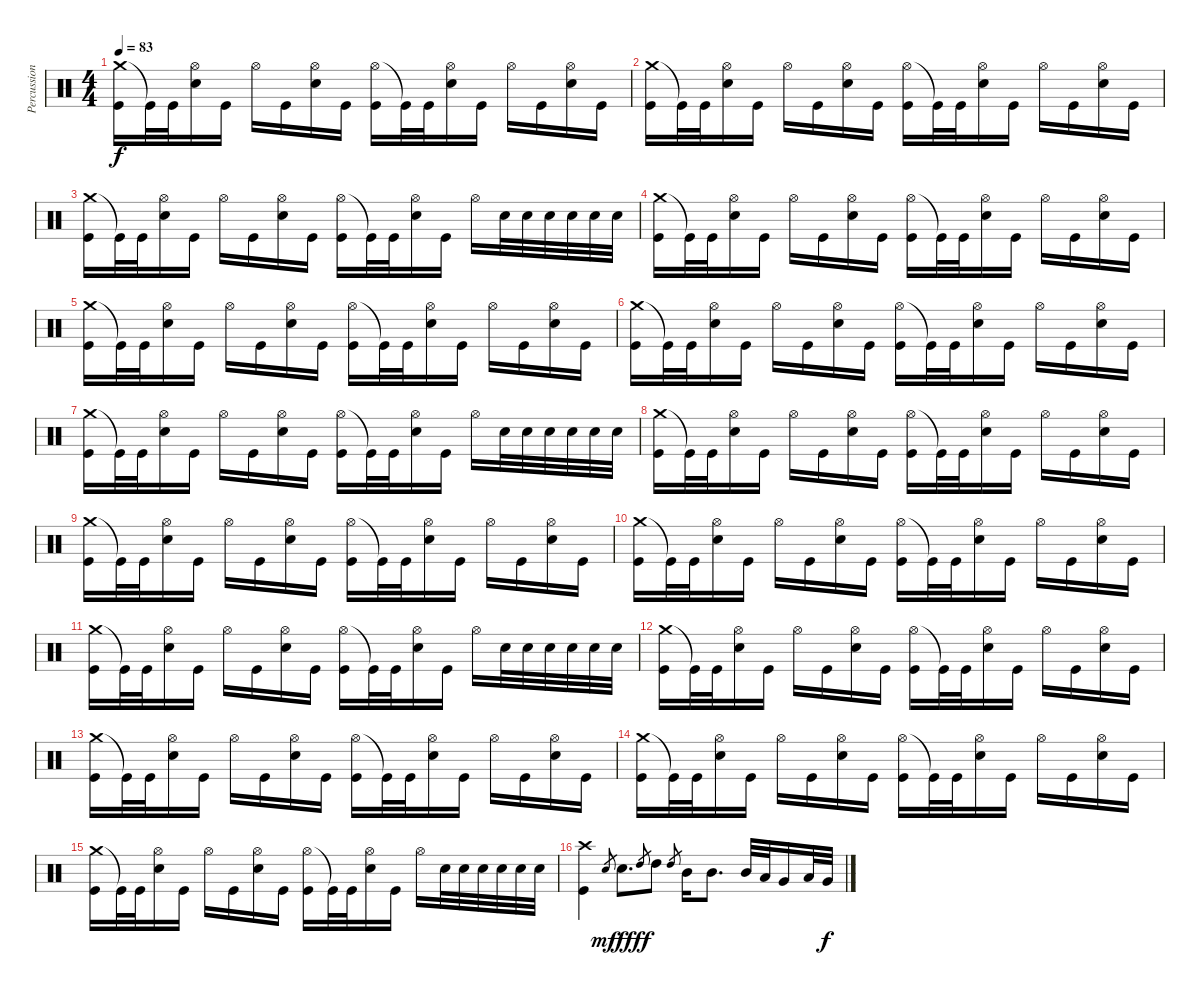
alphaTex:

\track ("Percussions" "Percussion") {instrument percussion}
\staff {score}
\articulation defaults
\ts (4 4)
\tempo 83
\clef neutral
\ks c
("Crash medium (hit)" "Kick (hit)").16{dy f} "Kick (hit)"{t}.32 "Kick (hit)".32 ("Hi-Hat (open)" "Electric Snare (hit)").16 "Kick (hit)".16 "Hi-Hat (open)".16 "Kick (hit)".16 ("Hi-Hat (open)" "Electric Snare (hit)").16 "Kick (hit)".16 ("Hi-Hat (open)" "Kick (hit)").16 "Kick (hit)"{t}.32 "Kick (hit)".32 ("Hi-Hat (open)" "Electric Snare (hit)").16 "Kick (hit)".16 "Hi-Hat (open)".16 "Kick (hit)".16 ("Hi-Hat (open)" "Electric Snare (hit)").16 "Kick (hit)".16 |
("Crash medium (hit)" "Kick (hit)").16 "Kick (hit)"{t}.32 "Kick (hit)".32 ("Hi-Hat (open)" "Electric Snare (hit)").16 "Kick (hit)".16 "Hi-Hat (open)".16 "Kick (hit)".16 ("Hi-Hat (open)" "Electric Snare (hit)").16 "Kick (hit)".16 ("Hi-Hat (open)" "Kick (hit)").16 "Kick (hit)"{t}.32 "Kick (hit)".32 ("Hi-Hat (open)" "Electric Snare (hit)").16 "Kick (hit)".16 "Hi-Hat (open)".16 "Kick (hit)".16 ("Hi-Hat (open)" "Electric Snare (hit)").16 "Kick (hit)".16 |
("Crash medium (hit)" "Kick (hit)").16 "Kick (hit)"{t}.32 "Kick (hit)".32 ("Hi-Hat (open)" "Electric Snare (hit)").16 "Kick (hit)".16 "Hi-Hat (open)".16 "Kick (hit)".16 ("Hi-Hat (open)" "Electric Snare (hit)").16 "Kick (hit)".16 ("Hi-Hat (open)" "Kick (hit)").16 "Kick (hit)"{t}.32 "Kick (hit)".32 ("Hi-Hat (open)" "Electric Snare (hit)").16 "Kick (hit)".16 "Hi-Hat (open)".16 "Electric Snare (hit)".32 "Electric Snare (hit)".32 "Electric Snare (hit)".32 "Electric Snare (hit)".32 "Electric Snare (hit)".32 "Electric Snare (hit)".32 |
("Crash medium (hit)" "Kick (hit)").16 "Kick (hit)"{t}.32 "Kick (hit)".32 ("Hi-Hat (open)" "Electric Snare (hit)").16 "Kick (hit)".16 "Hi-Hat (open)".16 "Kick (hit)".16 ("Hi-Hat (open)" "Electric Snare (hit)").16 "Kick (hit)".16 ("Hi-Hat (open)" "Kick (hit)").16 "Kick (hit)"{t}.32 "Kick (hit)".32 ("Hi-Hat (open)" "Electric Snare (hit)").16 "Kick (hit)".16 "Hi-Hat (open)".16 "Kick (hit)".16 ("Hi-Hat (open)" "Electric Snare (hit)").16 "Kick (hit)".16 |
("Crash medium (hit)" "Kick (hit)").16 "Kick (hit)"{t}.32 "Kick (hit)".32 ("Hi-Hat (open)" "Electric Snare (hit)").16 "Kick (hit)".16 "Hi-Hat (open)".16 "Kick (hit)".16 ("Hi-Hat (open)" "Electric Snare (hit)").16 "Kick (hit)".16 ("Hi-Hat (open)" "Kick (hit)").16 "Kick (hit)"{t}.32 "Kick (hit)".32 ("Hi-Hat (open)" "Electric Snare (hit)").16 "Kick (hit)".16 "Hi-Hat (open)".16 "Kick (hit)".16 ("Hi-Hat (open)" "Electric Snare (hit)").16 "Kick (hit)".16 |
("Crash medium (hit)" "Kick (hit)").16 "Kick (hit)"{t}.32 "Kick (hit)".32 ("Hi-Hat (open)" "Electric Snare (hit)").16 "Kick (hit)".16 "Hi-Hat (open)".16 "Kick (hit)".16 ("Hi-Hat (open)" "Electric Snare (hit)").16 "Kick (hit)".16 ("Hi-Hat (open)" "Kick (hit)").16 "Kick (hit)"{t}.32 "Kick (hit)".32 ("Hi-Hat (open)" "Electric Snare (hit)").16 "Kick (hit)".16 "Hi-Hat (open)".16 "Kick (hit)".16 ("Hi-Hat (open)" "Electric Snare (hit)").16 "Kick (hit)".16 |
("Crash medium (hit)" "Kick (hit)").16 "Kick (hit)"{t}.32 "Kick (hit)".32 ("Hi-Hat (open)" "Electric Snare (hit)").16 "Kick (hit)".16 "Hi-Hat (open)".16 "Kick (hit)".16 ("Hi-Hat (open)" "Electric Snare (hit)").16 "Kick (hit)".16 ("Hi-Hat (open)" "Kick (hit)").16 "Kick (hit)"{t}.32 "Kick (hit)".32 ("Hi-Hat (open)" "Electric Snare (hit)").16 "Kick (hit)".16 "Hi-Hat (open)".16 "Electric Snare (hit)".32 "Electric Snare (hit)".32 "Electric Snare (hit)".32 "Electric Snare (hit)".32 "Electric Snare (hit)".32 "Electric Snare (hit)".32 |
("Crash medium (hit)" "Kick (hit)").16 "Kick (hit)"{t}.32 "Kick (hit)".32 ("Hi-Hat (open)" "Electric Snare (hit)").16 "Kick (hit)".16 "Hi-Hat (open)".16 "Kick (hit)".16 ("Hi-Hat (open)" "Electric Snare (hit)").16 "Kick (hit)".16 ("Hi-Hat (open)" "Kick (hit)").16 "Kick (hit)"{t}.32 "Kick (hit)".32 ("Hi-Hat (open)" "Electric Snare (hit)").16 "Kick (hit)".16 "Hi-Hat (open)".16 "Kick (hit)".16 ("Hi-Hat (open)" "Electric Snare (hit)").16 "Kick (hit)".16 |
("Crash medium (hit)" "Kick (hit)").16 "Kick (hit)"{t}.32 "Kick (hit)".32 ("Hi-Hat (open)" "Electric Snare (hit)").16 "Kick (hit)".16 "Hi-Hat (open)".16 "Kick (hit)".16 ("Hi-Hat (open)" "Electric Snare (hit)").16 "Kick (hit)".16 ("Hi-Hat (open)" "Kick (hit)").16 "Kick (hit)"{t}.32 "Kick (hit)".32 ("Hi-Hat (open)" "Electric Snare (hit)").16 "Kick (hit)".16 "Hi-Hat (open)".16 "Kick (hit)".16 ("Hi-Hat (open)" "Electric Snare (hit)").16 "Kick (hit)".16 |
("Crash medium (hit)" "Kick (hit)").16 "Kick (hit)"{t}.32 "Kick (hit)".32 ("Hi-Hat (open)" "Electric Snare (hit)").16 "Kick (hit)".16 "Hi-Hat (open)".16 "Kick (hit)".16 ("Hi-Hat (open)" "Electric Snare (hit)").16 "Kick (hit)".16 ("Hi-Hat (open)" "Kick (hit)").16 "Kick (hit)"{t}.32 "Kick (hit)".32 ("Hi-Hat (open)" "Electric Snare (hit)").16 "Kick (hit)".16 "Hi-Hat (open)".16 "Kick (hit)".16 ("Hi-Hat (open)" "Electric Snare (hit)").16 "Kick (hit)".16 |
("Crash medium (hit)" "Kick (hit)").16 "Kick (hit)"{t}.32 "Kick (hit)".32 ("Hi-Hat (open)" "Electric Snare (hit)").16 "Kick (hit)".16 "Hi-Hat (open)".16 "Kick (hit)".16 ("Hi-Hat (open)" "Electric Snare (hit)").16 "Kick (hit)".16 ("Hi-Hat (open)" "Kick (hit)").16 "Kick (hit)"{t}.32 "Kick (hit)".32 ("Hi-Hat (open)" "Electric Snare (hit)").16 "Kick (hit)".16 "Hi-Hat (open)".16 "Electric Snare (hit)".32 "Electric Snare (hit)".32 "Electric Snare (hit)".32 "Electric Snare (hit)".32 "Electric Snare (hit)".32 "Electric Snare (hit)".32 |
("Crash medium (hit)" "Kick (hit)").16 "Kick (hit)"{t}.32 "Kick (hit)".32 ("Hi-Hat (open)" "Electric Snare (hit)").16 "Kick (hit)".16 "Hi-Hat (open)".16 "Kick (hit)".16 ("Hi-Hat (open)" "Electric Snare (hit)").16 "Kick (hit)".16 ("Hi-Hat (open)" "Kick (hit)").16 "Kick (hit)"{t}.32 "Kick (hit)".32 ("Hi-Hat (open)" "Electric Snare (hit)").16 "Kick (hit)".16 "Hi-Hat (open)".16 "Kick (hit)".16 ("Hi-Hat (open)" "Electric Snare (hit)").16 "Kick (hit)".16 |
("Crash medium (hit)" "Kick (hit)").16 "Kick (hit)"{t}.32 "Kick (hit)".32 ("Hi-Hat (open)" "Electric Snare (hit)").16 "Kick (hit)".16 "Hi-Hat (open)".16 "Kick (hit)".16 ("Hi-Hat (open)" "Electric Snare (hit)").16 "Kick (hit)".16 ("Hi-Hat (open)" "Kick (hit)").16 "Kick (hit)"{t}.32 "Kick (hit)".32 ("Hi-Hat (open)" "Electric Snare (hit)").16 "Kick (hit)".16 "Hi-Hat (open)".16 "Kick (hit)".16 ("Hi-Hat (open)" "Electric Snare (hit)").16 "Kick (hit)".16 |
("Crash medium (hit)" "Kick (hit)").16 "Kick (hit)"{t}.32 "Kick (hit)".32 ("Hi-Hat (open)" "Electric Snare (hit)").16 "Kick (hit)".16 "Hi-Hat (open)".16 "Kick (hit)".16 ("Hi-Hat (open)" "Electric Snare (hit)").16 "Kick (hit)".16 ("Hi-Hat (open)" "Kick (hit)").16 "Kick (hit)"{t}.32 "Kick (hit)".32 ("Hi-Hat (open)" "Electric Snare (hit)").16 "Kick (hit)".16 "Hi-Hat (open)".16 "Kick (hit)".16 ("Hi-Hat (open)" "Electric Snare (hit)").16 "Kick (hit)".16 |
("Crash medium (hit)" "Kick (hit)").16 "Kick (hit)"{t}.32 "Kick (hit)".32 ("Hi-Hat (open)" "Electric Snare (hit)").16 "Kick (hit)".16 "Hi-Hat (open)".16 "Kick (hit)".16 ("Hi-Hat (open)" "Electric Snare (hit)").16 "Kick (hit)".16 ("Hi-Hat (open)" "Kick (hit)").16 "Kick (hit)"{t}.32 "Kick (hit)".32 ("Hi-Hat (open)" "Electric Snare (hit)").16 "Kick (hit)".16 "Hi-Hat (open)".16 "Electric Snare (hit)".32 "Electric Snare (hit)".32 "Electric Snare (hit)".32 "Electric Snare (hit)".32 "Electric Snare (hit)".32 "Electric Snare (hit)".32 |
("Crash high (hit)" "Kick (hit)").4 "Electric Snare (hit)".8{gr dy mf} "Electric Snare (hit)".8{d dy f} "High Tom (hit)".8{gr dy fff} "High Tom (hit)".8{volume 10} "High Tom (hit)".8{gr} "Mid Tom (hit)".16 "Mid Tom (hit)".8{d} "Mid Tom (hit)".32 "Low Tom (hit)".32 "Very Low Tom (hit)".16 "Low Tom (hit)".32 "Very Low Tom (hit)".32{dy f}
